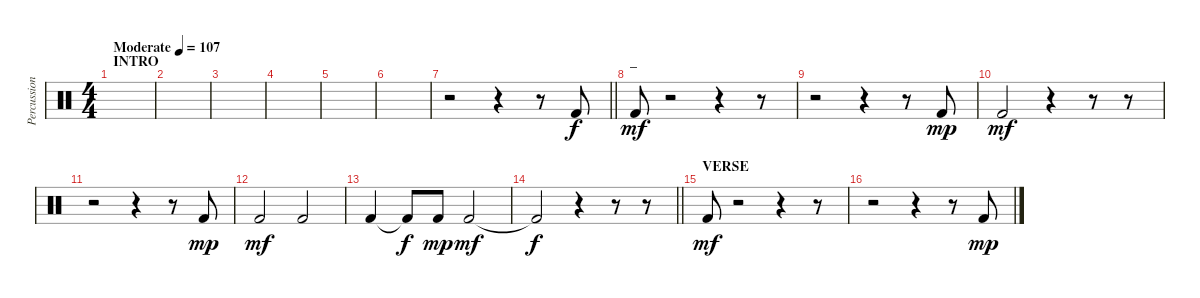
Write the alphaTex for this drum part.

\track ("Percussion" "Percussion") {instrument percussion}
\staff {score}
\articulation defaults
\ts (4 4)
\section ("" "INTRO")
\tempo (107 "Moderate")
\clef neutral
\ks c
|
|
|
|
|
|
\barLineRight lightlight
r.2 r.4 r.8 "Kick (hit) 2".8 |
\section ("" "_")
"Kick (hit) 2".8{dy mf} r.2 r.4 r.8 |
r.2 r.4 r.8 "Kick (hit) 2".8{dy mp} |
"Kick (hit) 2".2{dy mf} r.4 r.8 r.8 |
r.2 r.4 r.8 "Kick (hit) 2".8{dy mp} |
"Kick (hit) 2".2{dy mf} "Kick (hit) 2".2 |
"Kick (hit) 2".4 "Kick (hit) 2"{t}.8{dy f} "Kick (hit) 2".8{dy mp} "Kick (hit) 2".2{dy mf} |
\barLineRight lightlight "Kick (hit) 2"{t}.2{dy f}
r.4 r.8 r.8 |
\section ("" "VERSE")
"Kick (hit) 2".8{dy mf} r.2 r.4 r.8 |
r.2 r.4 r.8 "Kick (hit) 2".8{dy mp}
